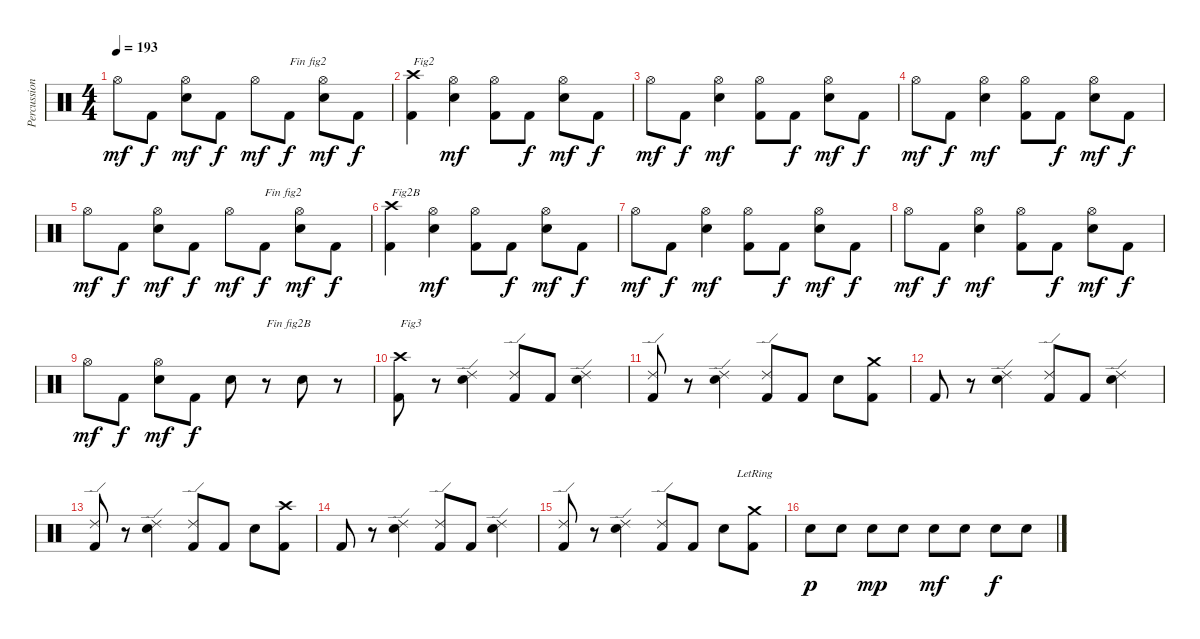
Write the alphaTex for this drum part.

\track ("Percussions" "Percussion") {instrument percussion}
\staff {score}
\articulation defaults
\ts (4 4)
\tempo 193
\clef neutral
\ks c "Hi-Hat (open)".8{dy mf} "Kick (hit) 2".8{dy f}
("Electric Snare (hit)" "Hi-Hat (open)").8{dy mf} "Kick (hit) 2".8{dy f} "Hi-Hat (open)".8{dy mf} "Kick (hit) 2".8{txt "Fin fig2" dy f} ("Electric Snare (hit)" "Hi-Hat (open)").8{dy mf} "Kick (hit) 2".8{dy f} |
("Kick (hit) 2" "Crash high (hit)").4{txt "Fig2"} ("Electric Snare (hit)" "Hi-Hat (open)").4{dy mf} ("Kick (hit) 2" "Hi-Hat (open)").8 "Kick (hit) 2".8{dy f} ("Electric Snare (hit)" "Hi-Hat (open)").8{dy mf} "Kick (hit) 2".8{dy f} |
"Hi-Hat (open)".8{dy mf} "Kick (hit) 2".8{dy f} ("Electric Snare (hit)" "Hi-Hat (open)").4{dy mf} ("Kick (hit) 2" "Hi-Hat (open)").8 "Kick (hit) 2".8{dy f} ("Electric Snare (hit)" "Hi-Hat (open)").8{dy mf} "Kick (hit) 2".8{dy f} |
"Hi-Hat (open)".8{dy mf} "Kick (hit) 2".8{dy f} ("Electric Snare (hit)" "Hi-Hat (open)").4{dy mf} ("Kick (hit) 2" "Hi-Hat (open)").8 "Kick (hit) 2".8{dy f} ("Electric Snare (hit)" "Hi-Hat (open)").8{dy mf} "Kick (hit) 2".8{dy f} |
"Hi-Hat (open)".8{dy mf} "Kick (hit) 2".8{dy f} ("Electric Snare (hit)" "Hi-Hat (open)").8{dy mf} "Kick (hit) 2".8{dy f} "Hi-Hat (open)".8{dy mf} "Kick (hit) 2".8{txt "Fin fig2" dy f} ("Electric Snare (hit)" "Hi-Hat (open)").8{dy mf} "Kick (hit) 2".8{dy f} |
("Kick (hit) 2" "Crash high (hit)").4{txt "Fig2B"} ("Electric Snare (hit)" "Hi-Hat (open)").4{dy mf} ("Kick (hit) 2" "Hi-Hat (open)").8 "Kick (hit) 2".8{dy f} ("Electric Snare (hit)" "Hi-Hat (open)").8{dy mf} "Kick (hit) 2".8{dy f} |
"Hi-Hat (open)".8{dy mf} "Kick (hit) 2".8{dy f} ("Electric Snare (hit)" "Hi-Hat (open)").4{dy mf} ("Kick (hit) 2" "Hi-Hat (open)").8 "Kick (hit) 2".8{dy f} ("Electric Snare (hit)" "Hi-Hat (open)").8{dy mf} "Kick (hit) 2".8{dy f} |
"Hi-Hat (open)".8{dy mf} "Kick (hit) 2".8{dy f} ("Electric Snare (hit)" "Hi-Hat (open)").4{dy mf} ("Kick (hit) 2" "Hi-Hat (open)").8 "Kick (hit) 2".8{dy f} ("Electric Snare (hit)" "Hi-Hat (open)").8{dy mf} "Kick (hit) 2".8{dy f} |
"Hi-Hat (open)".8{dy mf} "Kick (hit) 2".8{dy f} ("Electric Snare (hit)" "Hi-Hat (open)").8{dy mf} "Kick (hit) 2".8{dy f} "Electric Snare (hit)".8 r.8{txt "Fin fig2B"} "Electric Snare (hit)".8 r.8 |
("Kick (hit) 2" "Crash high (hit)").8{txt "Fig3"} r.8 ("Electric Snare (hit)" "Ride (edge) 2").4 ("Kick (hit) 2" "Ride (edge) 2").8 "Kick (hit) 2".8 ("Electric Snare (hit)" "Ride (edge) 2").4 |
("Kick (hit) 2" "Ride (edge) 2").8 r.8 ("Electric Snare (hit)" "Ride (edge) 2").4 ("Kick (hit) 2" "Ride (edge) 2").8 "Kick (hit) 2".8 "Electric Snare (hit)".8 ("Kick (hit) 2" "Crash medium (hit)").8 |
"Kick (hit) 2".8 r.8 ("Electric Snare (hit)" "Ride (edge) 2").4 ("Kick (hit) 2" "Ride (edge) 2").8 "Kick (hit) 2".8 ("Electric Snare (hit)" "Ride (edge) 2").4 |
("Kick (hit) 2" "Ride (edge) 2").8 r.8 ("Electric Snare (hit)" "Ride (edge) 2").4 ("Kick (hit) 2" "Ride (edge) 2").8 "Kick (hit) 2".8 "Electric Snare (hit)".8 ("Kick (hit) 2" "Crash high (hit)").8 |
"Kick (hit) 2".8 r.8 ("Electric Snare (hit)" "Ride (edge) 2").4 ("Kick (hit) 2" "Ride (edge) 2").8 "Kick (hit) 2".8 ("Electric Snare (hit)" "Ride (edge) 2").4 |
("Kick (hit) 2" "Ride (edge) 2").8 r.8 ("Electric Snare (hit)" "Ride (edge) 2").4 ("Kick (hit) 2" "Ride (edge) 2").8 "Kick (hit) 2".8 "Electric Snare (hit)".8 ("Kick (hit) 2" "Crash medium (hit)"{lr}).8 |
"Electric Snare (hit)".8{dy p} "Electric Snare (hit)".8 "Electric Snare (hit)".8{dy mp} "Electric Snare (hit)".8 "Electric Snare (hit)".8{dy mf} "Electric Snare (hit)".8 "Electric Snare (hit)".8{dy f} "Electric Snare (hit)".8
